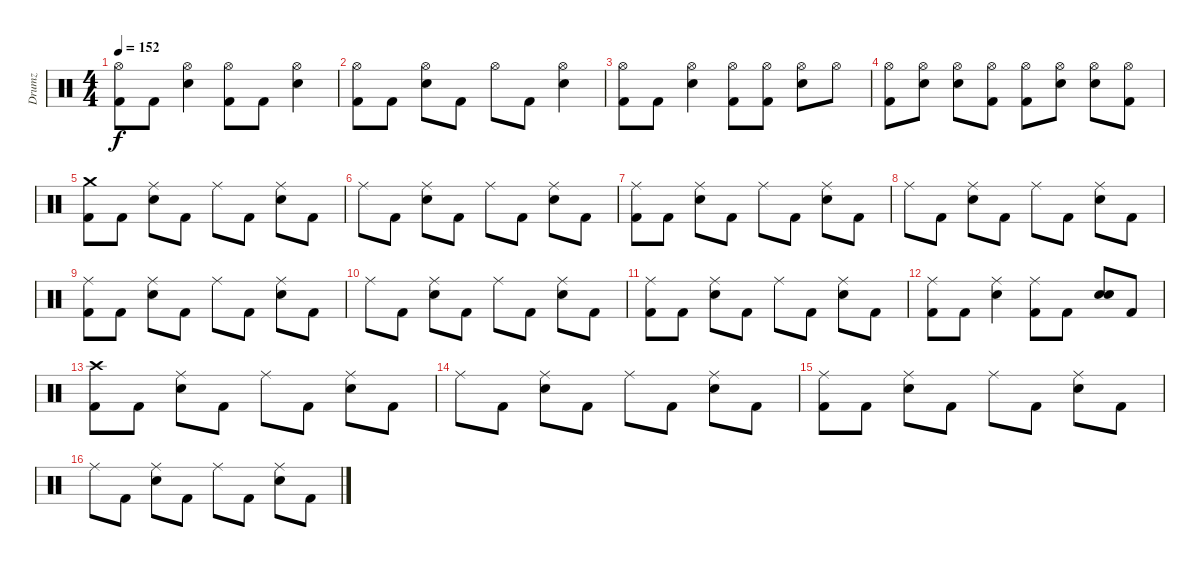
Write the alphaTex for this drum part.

\track ("Drumz" "Drumz") {instrument percussion}
\staff {score}
\articulation defaults
\ts (4 4)
\tempo 152
\clef neutral
\ks c
("Kick (hit) 2" "Hi-Hat (open)").8{dy f} "Kick (hit) 2".8 ("Snare (hit) 2" "Hi-Hat (open)").4 ("Kick (hit) 2" "Hi-Hat (open)").8 "Kick (hit) 2".8 ("Snare (hit) 2" "Hi-Hat (open)").4 |
("Kick (hit) 2" "Hi-Hat (open)").8 "Kick (hit) 2".8 ("Snare (hit) 2" "Hi-Hat (open)").8 "Kick (hit) 2".8 "Hi-Hat (open)".8 "Kick (hit) 2".8 ("Snare (hit) 2" "Hi-Hat (open)").4 |
("Kick (hit) 2" "Hi-Hat (open)").8 "Kick (hit) 2".8 ("Snare (hit) 2" "Hi-Hat (open)").4 ("Kick (hit) 2" "Hi-Hat (open)").8 ("Kick (hit) 2" "Hi-Hat (open)").8 ("Snare (hit) 2" "Hi-Hat (open)").8 "Hi-Hat (open)".8 |
("Kick (hit) 2" "Hi-Hat (open)").8 ("Snare (hit) 2" "Hi-Hat (open)").8 ("Snare (hit) 2" "Hi-Hat (open)").8 ("Kick (hit) 2" "Hi-Hat (open)").8 ("Kick (hit) 2" "Hi-Hat (open)").8 ("Snare (hit) 2" "Hi-Hat (open)").8 ("Snare (hit) 2" "Hi-Hat (open)").8 ("Kick (hit) 2" "Hi-Hat (open)").8 |
("Kick (hit) 2" "Crash medium (hit)").8 "Kick (hit) 2".8 ("Snare (hit) 2" "Ride (middle)").8 "Kick (hit) 2".8 "Ride (middle)".8 "Kick (hit) 2".8 ("Snare (hit) 2" "Ride (middle)").8 "Kick (hit) 2".8 |
"Ride (middle)".8 "Kick (hit) 2".8 ("Snare (hit) 2" "Ride (middle)").8 "Kick (hit) 2".8 "Ride (middle)".8 "Kick (hit) 2".8 ("Snare (hit) 2" "Ride (middle)").8 "Kick (hit) 2".8 |
("Kick (hit) 2" "Ride (middle)").8 "Kick (hit) 2".8 ("Snare (hit) 2" "Ride (middle)").8 "Kick (hit) 2".8 "Ride (middle)".8 "Kick (hit) 2".8 ("Snare (hit) 2" "Ride (middle)").8 "Kick (hit) 2".8 |
"Ride (middle)".8 "Kick (hit) 2".8 ("Snare (hit) 2" "Ride (middle)").8 "Kick (hit) 2".8 "Ride (middle)".8 "Kick (hit) 2".8 ("Snare (hit) 2" "Ride (middle)").8 "Kick (hit) 2".8 |
("Kick (hit) 2" "Ride (middle)").8 "Kick (hit) 2".8 ("Snare (hit) 2" "Ride (middle)").8 "Kick (hit) 2".8 "Ride (middle)".8 "Kick (hit) 2".8 ("Snare (hit) 2" "Ride (middle)").8 "Kick (hit) 2".8 |
"Ride (middle)".8 "Kick (hit) 2".8 ("Snare (hit) 2" "Ride (middle)").8 "Kick (hit) 2".8 "Ride (middle)".8 "Kick (hit) 2".8 ("Snare (hit) 2" "Ride (middle)").8 "Kick (hit) 2".8 |
("Kick (hit) 2" "Ride (middle)").8 "Kick (hit) 2".8 ("Snare (hit) 2" "Ride (middle)").8 "Kick (hit) 2".8 "Ride (middle)".8 "Kick (hit) 2".8 ("Snare (hit) 2" "Ride (middle)").8 "Kick (hit) 2".8 |
("Kick (hit) 2" "Ride (middle)").8 "Kick (hit) 2".8 ("Snare (hit) 2" "Ride (middle)").4 ("Kick (hit) 2" "Ride (middle)").8 "Kick (hit) 2".8 ("Snare (hit) 2" "Snare (hit) 2").8 "Kick (hit) 2".8 |
("Kick (hit) 2" "Crash high (hit)").8 "Kick (hit) 2".8 ("Snare (hit) 2" "Ride (middle)").8 "Kick (hit) 2".8 "Ride (middle)".8 "Kick (hit) 2".8 ("Snare (hit) 2" "Ride (middle)").8 "Kick (hit) 2".8 |
"Ride (middle)".8 "Kick (hit) 2".8 ("Snare (hit) 2" "Ride (middle)").8 "Kick (hit) 2".8 "Ride (middle)".8 "Kick (hit) 2".8 ("Snare (hit) 2" "Ride (middle)").8 "Kick (hit) 2".8 |
("Kick (hit) 2" "Ride (middle)").8 "Kick (hit) 2".8 ("Snare (hit) 2" "Ride (middle)").8 "Kick (hit) 2".8 "Ride (middle)".8 "Kick (hit) 2".8 ("Snare (hit) 2" "Ride (middle)").8 "Kick (hit) 2".8 |
"Ride (middle)".8 "Kick (hit) 2".8 ("Snare (hit) 2" "Ride (middle)").8 "Kick (hit) 2".8 "Ride (middle)".8 "Kick (hit) 2".8 ("Snare (hit) 2" "Ride (middle)").8 "Kick (hit) 2".8
